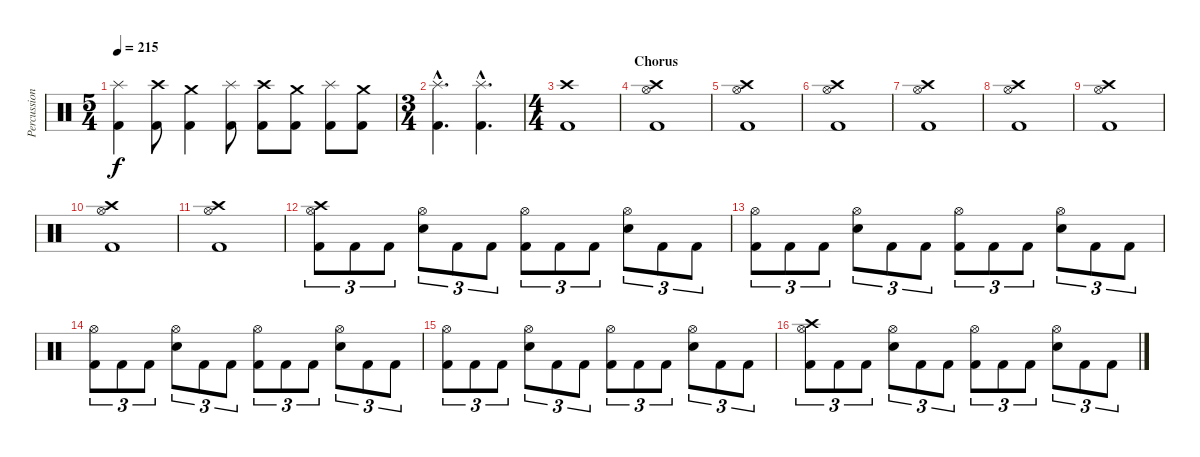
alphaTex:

\track ("Percussions" "Percussion") {instrument percussion}
\staff {score}
\articulation defaults
\ts (5 4)
\tempo 215
\clef neutral
\ks c
("Splash (hit)" "Kick (hit) 2").4{dy f} ("Crash high (hit)" "Kick (hit) 2").8 ("Crash medium (hit)" "Kick (hit) 2").4 ("Splash (hit)" "Kick (hit) 2").8 ("Crash high (hit)" "Kick (hit) 2").8 ("Crash medium (hit)" "Kick (hit) 2").8 ("Splash (hit)" "Kick (hit) 2").8 ("Crash medium (hit)" "Kick (hit) 2").8 |
\ts (3 4)
("Splash (hit)"{hac} "Kick (hit) 2"{hac}).4{d} ("Splash (hit)"{hac} "Kick (hit) 2"{hac}).4{d} |
\ts (4 4)
("Crash high (hit)" "Kick (hit) 2").1 |
\section ("" "Chorus")
("Crash high (hit)" "Hi-Hat (open)" "Kick (hit) 2").1 |
("Crash high (hit)" "Hi-Hat (open)" "Kick (hit) 2").1 |
("Crash high (hit)" "Hi-Hat (open)" "Kick (hit) 2").1 |
("Crash high (hit)" "Hi-Hat (open)" "Kick (hit) 2").1 |
("Crash high (hit)" "Hi-Hat (open)" "Kick (hit) 2").1 |
("Crash high (hit)" "Hi-Hat (open)" "Kick (hit) 2").1 |
("Crash high (hit)" "Hi-Hat (open)" "Kick (hit) 2").1 |
("Crash high (hit)" "Hi-Hat (open)" "Kick (hit) 2").1 |
("Crash high (hit)" "Hi-Hat (open)" "Kick (hit) 2").8{tu (3 2)} "Kick (hit) 2".8{tu (3 2)} "Kick (hit) 2".8{tu (3 2)} ("Hi-Hat (open)" "Electric Snare (hit)").8{tu (3 2)} "Kick (hit) 2".8{tu (3 2)} "Kick (hit) 2".8{tu (3 2)} ("Hi-Hat (open)" "Kick (hit) 2").8{tu (3 2)} "Kick (hit) 2".8{tu (3 2)} "Kick (hit) 2".8{tu (3 2)} ("Hi-Hat (open)" "Electric Snare (hit)").8{tu (3 2)} "Kick (hit) 2".8{tu (3 2)} "Kick (hit) 2".8{tu (3 2)} |
("Hi-Hat (open)" "Kick (hit) 2").8{tu (3 2)} "Kick (hit) 2".8{tu (3 2)} "Kick (hit) 2".8{tu (3 2)} ("Hi-Hat (open)" "Electric Snare (hit)").8{tu (3 2)} "Kick (hit) 2".8{tu (3 2)} "Kick (hit) 2".8{tu (3 2)} ("Hi-Hat (open)" "Kick (hit) 2").8{tu (3 2)} "Kick (hit) 2".8{tu (3 2)} "Kick (hit) 2".8{tu (3 2)} ("Hi-Hat (open)" "Electric Snare (hit)").8{tu (3 2)} "Kick (hit) 2".8{tu (3 2)} "Kick (hit) 2".8{tu (3 2)} |
("Hi-Hat (open)" "Kick (hit) 2").8{tu (3 2)} "Kick (hit) 2".8{tu (3 2)} "Kick (hit) 2".8{tu (3 2)} ("Hi-Hat (open)" "Electric Snare (hit)").8{tu (3 2)} "Kick (hit) 2".8{tu (3 2)} "Kick (hit) 2".8{tu (3 2)} ("Hi-Hat (open)" "Kick (hit) 2").8{tu (3 2)} "Kick (hit) 2".8{tu (3 2)} "Kick (hit) 2".8{tu (3 2)} ("Hi-Hat (open)" "Electric Snare (hit)").8{tu (3 2)} "Kick (hit) 2".8{tu (3 2)} "Kick (hit) 2".8{tu (3 2)} |
("Hi-Hat (open)" "Kick (hit) 2").8{tu (3 2)} "Kick (hit) 2".8{tu (3 2)} "Kick (hit) 2".8{tu (3 2)} ("Hi-Hat (open)" "Electric Snare (hit)").8{tu (3 2)} "Kick (hit) 2".8{tu (3 2)} "Kick (hit) 2".8{tu (3 2)} ("Hi-Hat (open)" "Kick (hit) 2").8{tu (3 2)} "Kick (hit) 2".8{tu (3 2)} "Kick (hit) 2".8{tu (3 2)} ("Hi-Hat (open)" "Electric Snare (hit)").8{tu (3 2)} "Kick (hit) 2".8{tu (3 2)} "Kick (hit) 2".8{tu (3 2)} |
("Crash high (hit)" "Hi-Hat (open)" "Kick (hit) 2").8{tu (3 2)} "Kick (hit) 2".8{tu (3 2)} "Kick (hit) 2".8{tu (3 2)} ("Hi-Hat (open)" "Electric Snare (hit)").8{tu (3 2)} "Kick (hit) 2".8{tu (3 2)} "Kick (hit) 2".8{tu (3 2)} ("Hi-Hat (open)" "Kick (hit) 2").8{tu (3 2)} "Kick (hit) 2".8{tu (3 2)} "Kick (hit) 2".8{tu (3 2)} ("Hi-Hat (open)" "Electric Snare (hit)").8{tu (3 2)} "Kick (hit) 2".8{tu (3 2)} "Kick (hit) 2".8{tu (3 2)}
